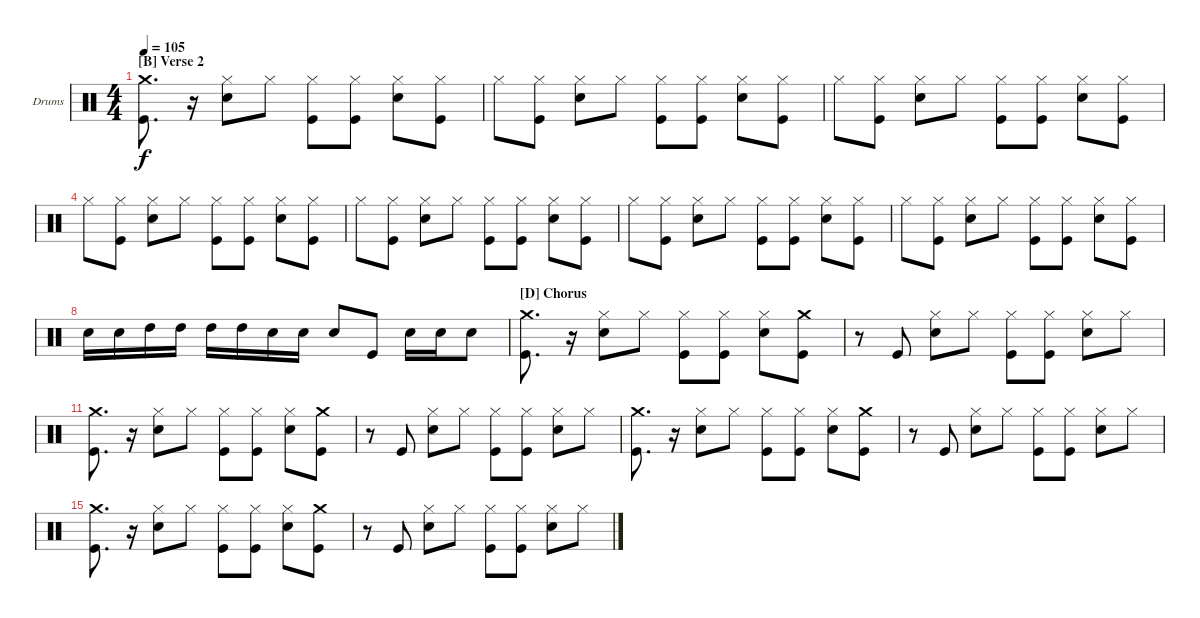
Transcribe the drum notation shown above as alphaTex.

\bracketExtendMode nobrackets
\firstSystemTrackNameOrientation horizontal
\otherSystemsTrackNameOrientation horizontal
\defaultBarNumberDisplay FirstOfSystem
\track ("Drumkit" "Drums") {instrument percussion}
\staff {score}
\articulation defaults
\ts (4 4)
\section ("B" "Verse 2")
\tempo 105
\clef neutral
\ks c
("Kick (hit)" "Crash medium (hit)").8{d dy f} r.16 ("Snare (hit) 2" "Hi-Hat (closed)").8 "Hi-Hat (closed)".8 ("Kick (hit)" "Hi-Hat (closed)").8 ("Kick (hit)" "Hi-Hat (closed)").8 ("Snare (hit) 2" "Hi-Hat (closed)").8 ("Kick (hit)" "Hi-Hat (closed)").8 |
"Hi-Hat (closed)".8 ("Kick (hit)" "Hi-Hat (closed)").8 ("Snare (hit) 2" "Hi-Hat (closed)").8 "Hi-Hat (closed)".8 ("Kick (hit)" "Hi-Hat (closed)").8 ("Kick (hit)" "Hi-Hat (closed)").8 ("Snare (hit) 2" "Hi-Hat (closed)").8 ("Kick (hit)" "Hi-Hat (closed)").8 |
"Hi-Hat (closed)".8 ("Kick (hit)" "Hi-Hat (closed)").8 ("Snare (hit) 2" "Hi-Hat (closed)").8 "Hi-Hat (closed)".8 ("Kick (hit)" "Hi-Hat (closed)").8 ("Kick (hit)" "Hi-Hat (closed)").8 ("Snare (hit) 2" "Hi-Hat (closed)").8 ("Kick (hit)" "Hi-Hat (closed)").8 |
"Hi-Hat (closed)".8 ("Kick (hit)" "Hi-Hat (closed)").8 ("Snare (hit) 2" "Hi-Hat (closed)").8 "Hi-Hat (closed)".8 ("Kick (hit)" "Hi-Hat (closed)").8 ("Kick (hit)" "Hi-Hat (closed)").8 ("Snare (hit) 2" "Hi-Hat (closed)").8 ("Kick (hit)" "Hi-Hat (closed)").8 |
"Hi-Hat (closed)".8 ("Kick (hit)" "Hi-Hat (closed)").8 ("Snare (hit) 2" "Hi-Hat (closed)").8 "Hi-Hat (closed)".8 ("Kick (hit)" "Hi-Hat (closed)").8 ("Kick (hit)" "Hi-Hat (closed)").8 ("Snare (hit) 2" "Hi-Hat (closed)").8 ("Kick (hit)" "Hi-Hat (closed)").8 |
"Hi-Hat (closed)".8 ("Kick (hit)" "Hi-Hat (closed)").8 ("Snare (hit) 2" "Hi-Hat (closed)").8 "Hi-Hat (closed)".8 ("Kick (hit)" "Hi-Hat (closed)").8 ("Kick (hit)" "Hi-Hat (closed)").8 ("Snare (hit) 2" "Hi-Hat (closed)").8 ("Kick (hit)" "Hi-Hat (closed)").8 |
"Hi-Hat (closed)".8 ("Kick (hit)" "Hi-Hat (closed)").8 ("Snare (hit) 2" "Hi-Hat (closed)").8 "Hi-Hat (closed)".8 ("Kick (hit)" "Hi-Hat (closed)").8 ("Kick (hit)" "Hi-Hat (closed)").8 ("Snare (hit) 2" "Hi-Hat (closed)").8 ("Kick (hit)" "Hi-Hat (closed)").8 |
"Snare (hit) 2".16 "Snare (hit) 2".16 "High Tom (hit)".16 "High Tom (hit)".16 "High Tom (hit)".16 "High Tom (hit)".16 "Snare (hit) 2".16 "Snare (hit) 2".16 "Snare (hit) 2".8 "Kick (hit)".8 "Snare (hit) 2".16 "Snare (hit) 2".16 "Snare (hit) 2".8 |
\section ("D" "Chorus")
("Kick (hit)" "Crash medium (hit)").8{d} r.16 ("Snare (hit) 2" "Hi-Hat (closed)").8 "Hi-Hat (closed)".8 ("Kick (hit)" "Hi-Hat (closed)").8 ("Kick (hit)" "Hi-Hat (closed)").8 ("Snare (hit) 2" "Hi-Hat (closed)").8 ("Kick (hit)" "Crash medium (hit)").8 |
r.8 "Kick (hit)".8 ("Snare (hit) 2" "Hi-Hat (closed)").8 "Hi-Hat (closed)".8 ("Kick (hit)" "Hi-Hat (closed)").8 ("Kick (hit)" "Hi-Hat (closed)").8 ("Snare (hit) 2" "Hi-Hat (closed)").8 "Hi-Hat (closed)".8 |
("Kick (hit)" "Crash medium (hit)").8{d} r.16 ("Snare (hit) 2" "Hi-Hat (closed)").8 "Hi-Hat (closed)".8 ("Kick (hit)" "Hi-Hat (closed)").8 ("Kick (hit)" "Hi-Hat (closed)").8 ("Snare (hit) 2" "Hi-Hat (closed)").8 ("Kick (hit)" "Crash medium (hit)").8 |
r.8 "Kick (hit)".8 ("Snare (hit) 2" "Hi-Hat (closed)").8 "Hi-Hat (closed)".8 ("Kick (hit)" "Hi-Hat (closed)").8 ("Kick (hit)" "Hi-Hat (closed)").8 ("Snare (hit) 2" "Hi-Hat (closed)").8 "Hi-Hat (closed)".8 |
("Kick (hit)" "Crash medium (hit)").8{d} r.16 ("Snare (hit) 2" "Hi-Hat (closed)").8 "Hi-Hat (closed)".8 ("Kick (hit)" "Hi-Hat (closed)").8 ("Kick (hit)" "Hi-Hat (closed)").8 ("Snare (hit) 2" "Hi-Hat (closed)").8 ("Kick (hit)" "Crash medium (hit)").8 |
r.8 "Kick (hit)".8 ("Snare (hit) 2" "Hi-Hat (closed)").8 "Hi-Hat (closed)".8 ("Kick (hit)" "Hi-Hat (closed)").8 ("Kick (hit)" "Hi-Hat (closed)").8 ("Snare (hit) 2" "Hi-Hat (closed)").8 "Hi-Hat (closed)".8 |
("Kick (hit)" "Crash medium (hit)").8{d} r.16 ("Snare (hit) 2" "Hi-Hat (closed)").8 "Hi-Hat (closed)".8 ("Kick (hit)" "Hi-Hat (closed)").8 ("Kick (hit)" "Hi-Hat (closed)").8 ("Snare (hit) 2" "Hi-Hat (closed)").8 ("Kick (hit)" "Crash medium (hit)").8 |
r.8 "Kick (hit)".8 ("Snare (hit) 2" "Hi-Hat (closed)").8 "Hi-Hat (closed)".8 ("Kick (hit)" "Hi-Hat (closed)").8 ("Kick (hit)" "Hi-Hat (closed)").8 ("Snare (hit) 2" "Hi-Hat (closed)").8 "Hi-Hat (closed)".8
